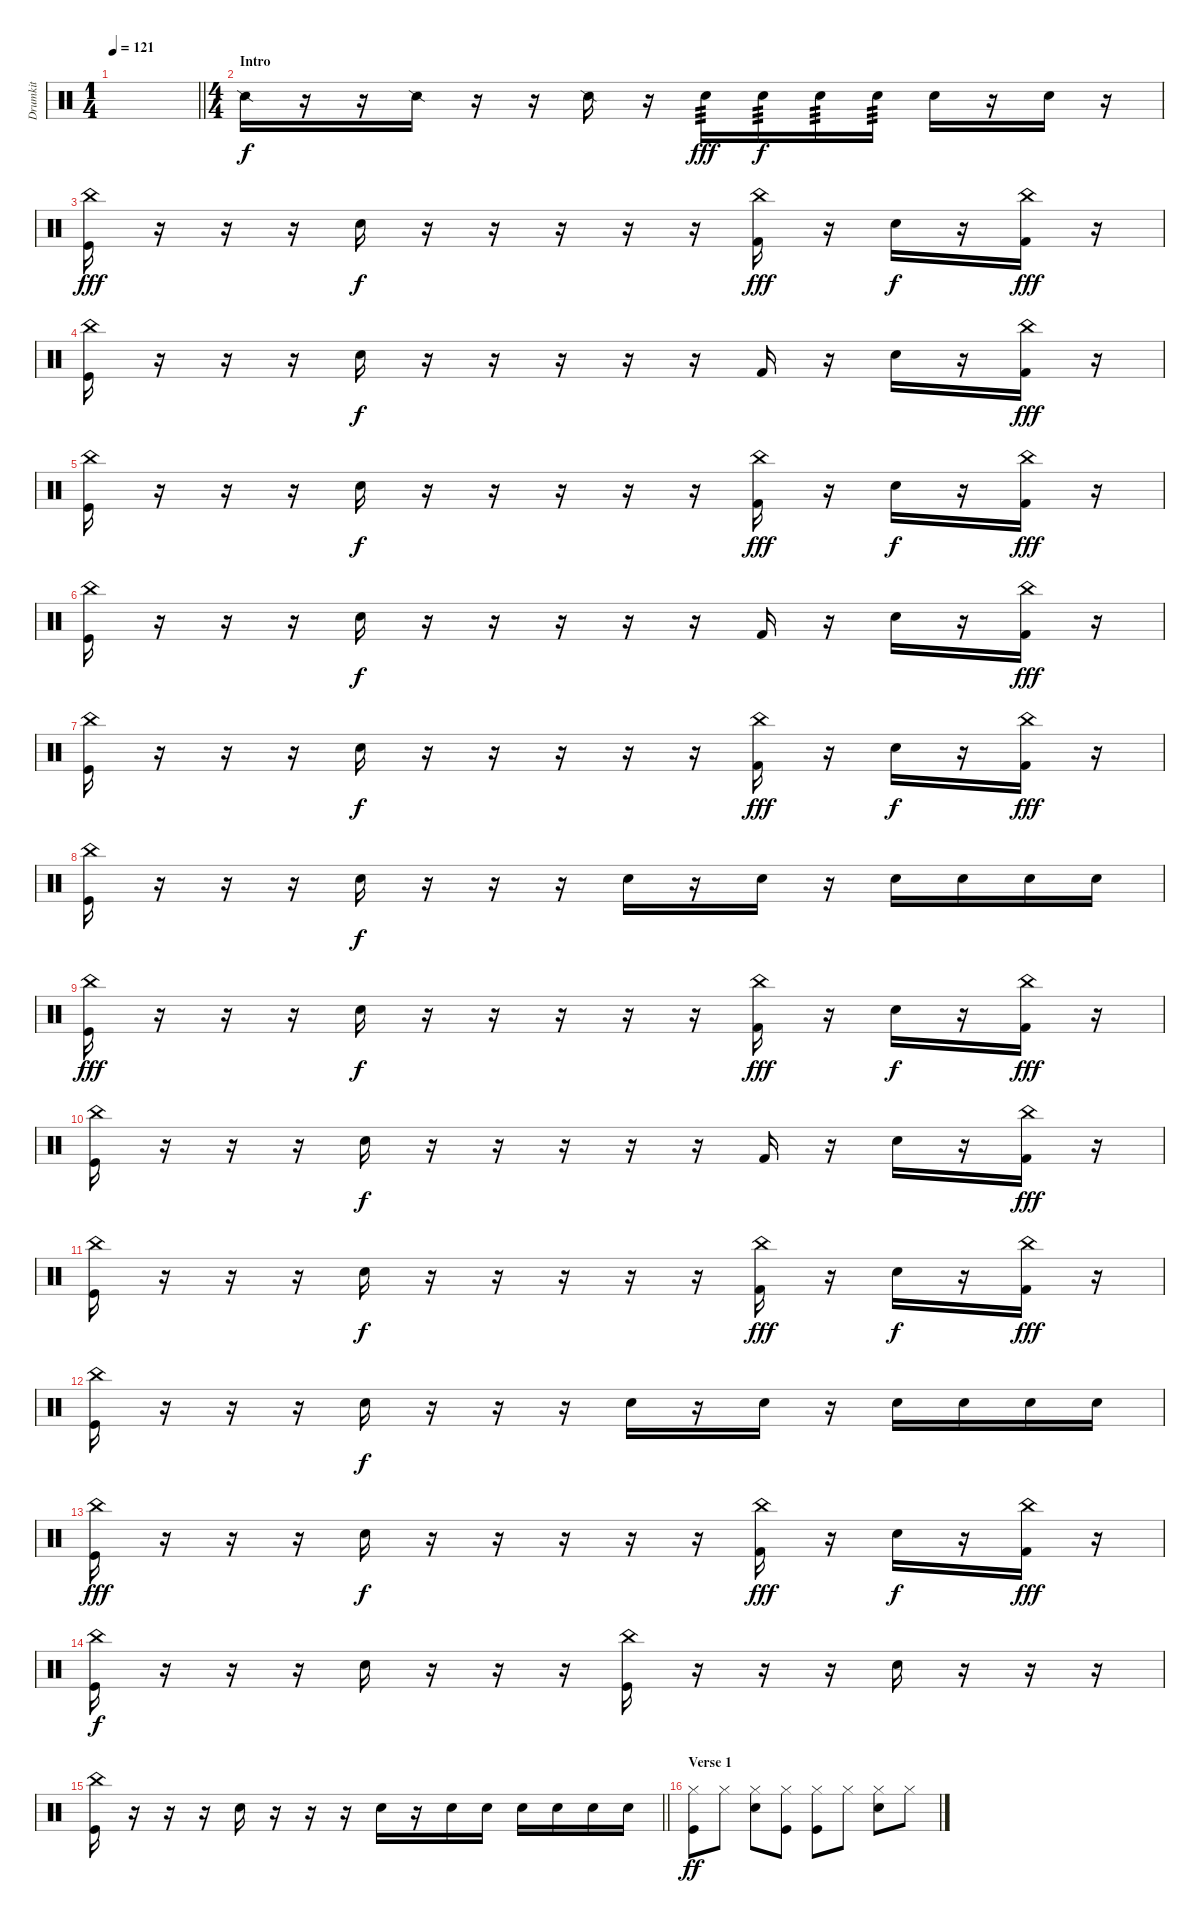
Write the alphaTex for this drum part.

\track ("Drumkit" "Drumkit") {instrument percussion}
\staff {score}
\articulation defaults
\ts (1 4)
\tempo 121
\clef neutral
\barLineRight lightlight
\ks c
|
\ts (4 4)
\section ("" "Intro")
"Snare (side stick) 2".16 r.16 r.16 "Snare (side stick) 2".16 r.16 r.16 "Snare (side stick) 2".16 r.16 "Snare (hit) 2".16{tp 3 dy fff} "Snare (hit) 2".16{tp 3 dy f} "Snare (hit) 2".16{tp 3} "Snare (hit) 2".16{tp 3} "Snare (hit) 2".16 r.16 "Snare (hit) 2".16 r.16 |
("China (hit)" "Kick (hit)").16{dy fff} r.16 r.16 r.16 "Snare (hit) 2".16{dy f} r.16 r.16 r.16 r.16 r.16 ("China (hit)" "Kick (hit) 2").16{dy fff} r.16 "Snare (hit) 2".16{dy f} r.16 ("China (hit)" "Kick (hit) 2").16{dy fff} r.16 |
("China (hit)" "Kick (hit)").16 r.16 r.16 r.16 "Snare (hit) 2".16{dy f} r.16 r.16 r.16 r.16 r.16 "Kick (hit) 2".16 r.16 "Snare (hit) 2".16 r.16 ("China (hit)" "Kick (hit) 2").16{dy fff} r.16 |
("China (hit)" "Kick (hit)").16 r.16 r.16 r.16 "Snare (hit) 2".16{dy f} r.16 r.16 r.16 r.16 r.16 ("China (hit)" "Kick (hit) 2").16{dy fff} r.16 "Snare (hit) 2".16{dy f} r.16 ("China (hit)" "Kick (hit) 2").16{dy fff} r.16 |
("China (hit)" "Kick (hit)").16 r.16 r.16 r.16 "Snare (hit) 2".16{dy f} r.16 r.16 r.16 r.16 r.16 "Kick (hit) 2".16 r.16 "Snare (hit) 2".16 r.16 ("China (hit)" "Kick (hit) 2").16{dy fff} r.16 |
("China (hit)" "Kick (hit)").16 r.16 r.16 r.16 "Snare (hit) 2".16{dy f} r.16 r.16 r.16 r.16 r.16 ("China (hit)" "Kick (hit) 2").16{dy fff} r.16 "Snare (hit) 2".16{dy f} r.16 ("China (hit)" "Kick (hit) 2").16{dy fff} r.16 |
("China (hit)" "Kick (hit)").16 r.16 r.16 r.16 "Snare (hit) 2".16{dy f} r.16 r.16 r.16 "Snare (hit) 2".16 r.16 "Snare (hit) 2".16 r.16 "Snare (hit) 2".16 "Snare (hit) 2".16 "Snare (hit) 2".16 "Snare (hit) 2".16 |
("China (hit)" "Kick (hit)").16{dy fff} r.16 r.16 r.16 "Snare (hit) 2".16{dy f} r.16 r.16 r.16 r.16 r.16 ("China (hit)" "Kick (hit) 2").16{dy fff} r.16 "Snare (hit) 2".16{dy f} r.16 ("China (hit)" "Kick (hit) 2").16{dy fff} r.16 |
("China (hit)" "Kick (hit)").16 r.16 r.16 r.16 "Snare (hit) 2".16{dy f} r.16 r.16 r.16 r.16 r.16 "Kick (hit) 2".16 r.16 "Snare (hit) 2".16 r.16 ("China (hit)" "Kick (hit) 2").16{dy fff} r.16 |
("China (hit)" "Kick (hit)").16 r.16 r.16 r.16 "Snare (hit) 2".16{dy f} r.16 r.16 r.16 r.16 r.16 ("China (hit)" "Kick (hit) 2").16{dy fff} r.16 "Snare (hit) 2".16{dy f} r.16 ("China (hit)" "Kick (hit) 2").16{dy fff} r.16 |
("China (hit)" "Kick (hit)").16 r.16 r.16 r.16 "Snare (hit) 2".16{dy f} r.16 r.16 r.16 "Snare (hit) 2".16 r.16 "Snare (hit) 2".16 r.16 "Snare (hit) 2".16 "Snare (hit) 2".16 "Snare (hit) 2".16 "Snare (hit) 2".16 |
("China (hit)" "Kick (hit)").16{dy fff} r.16 r.16 r.16 "Snare (hit) 2".16{dy f} r.16 r.16 r.16 r.16 r.16 ("China (hit)" "Kick (hit) 2").16{dy fff} r.16 "Snare (hit) 2".16{dy f} r.16 ("China (hit)" "Kick (hit) 2").16{dy fff} r.16 |
("China (hit)" "Kick (hit)").16{dy f} r.16 r.16 r.16 "Snare (hit) 2".16 r.16 r.16 r.16 ("China (hit)" "Kick (hit)").16 r.16 r.16 r.16 "Snare (hit) 2".16 r.16 r.16 r.16 |
\barLineRight lightlight
("China (hit)" "Kick (hit)").16 r.16 r.16 r.16 "Snare (hit) 2".16 r.16 r.16 r.16 "Snare (hit) 2".16 r.16 "Snare (hit) 2".16 "Snare (hit) 2".16 "Snare (hit) 2".16 "Snare (hit) 2".16 "Snare (hit) 2".16 "Snare (hit) 2".16 |
\section ("" "Verse 1")
("Kick (hit)" "Hi-Hat (closed)").8{dy ff} "Hi-Hat (closed)".8 ("Hi-Hat (closed)" "Snare (hit) 2").8 ("Kick (hit)" "Hi-Hat (closed)").8 ("Hi-Hat (closed)" "Kick (hit)").8 "Hi-Hat (closed)".8 ("Hi-Hat (closed)" "Snare (hit) 2").8 "Hi-Hat (closed)".8
